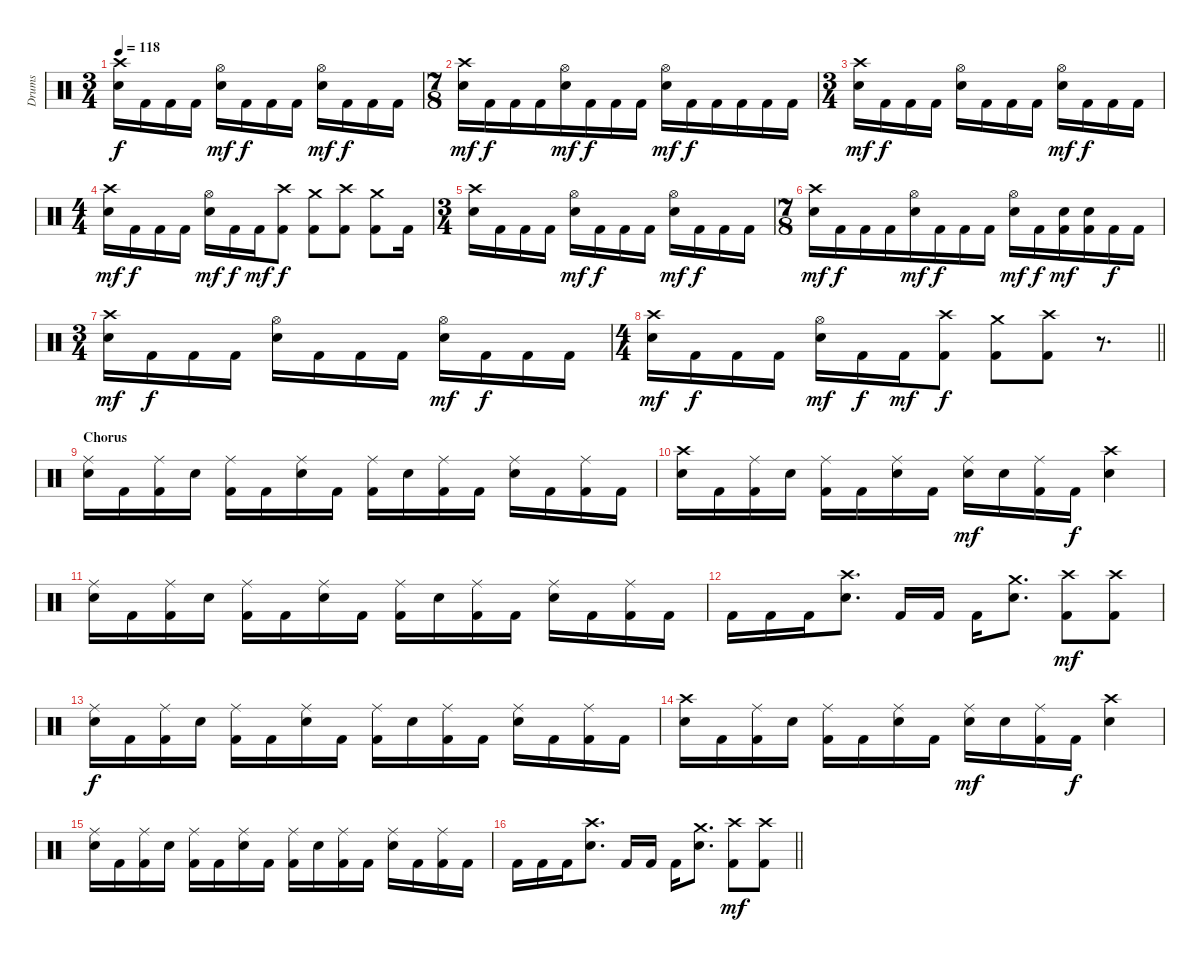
\track ("Drums" "Drums") {instrument percussion}
\staff {score}
\articulation defaults
\ts (3 4)
\tempo 118
\clef neutral
\ks aminor
("Crash high (hit)" "Snare (hit) 2").16{dy f} "Kick (hit) 2".16 "Kick (hit) 2".16 "Kick (hit) 2".16 ("Hi-Hat (open)" "Snare (hit) 2").16{dy mf} "Kick (hit) 2".16{dy f} "Kick (hit) 2".16 "Kick (hit) 2".16 ("Hi-Hat (open)" "Snare (hit) 2").16{dy mf} "Kick (hit) 2".16{dy f} "Kick (hit) 2".16 "Kick (hit) 2".16 |
\ts (7 8)
("Crash high (hit)" "Snare (hit) 2").16{dy mf} "Kick (hit) 2".16{dy f} "Kick (hit) 2".16 "Kick (hit) 2".16 ("Hi-Hat (open)" "Snare (hit) 2").16{dy mf} "Kick (hit) 2".16{dy f} "Kick (hit) 2".16 "Kick (hit) 2".16 ("Hi-Hat (open)" "Snare (hit) 2").16{dy mf} "Kick (hit) 2".16{dy f} "Kick (hit) 2".16 "Kick (hit) 2".16 "Kick (hit) 2".16 "Kick (hit) 2".16 |
\ts (3 4)
("Crash high (hit)" "Snare (hit) 2").16{dy mf} "Kick (hit) 2".16{dy f} "Kick (hit) 2".16 "Kick (hit) 2".16 ("Hi-Hat (open)" "Snare (hit) 2").16 "Kick (hit) 2".16 "Kick (hit) 2".16 "Kick (hit) 2".16 ("Hi-Hat (open)" "Snare (hit) 2").16{dy mf} "Kick (hit) 2".16{dy f} "Kick (hit) 2".16 "Kick (hit) 2".16 |
\ts (4 4)
("Crash high (hit)" "Snare (hit) 2").16{dy mf} "Kick (hit) 2".16{dy f} "Kick (hit) 2".16 "Kick (hit) 2".16 ("Hi-Hat (open)" "Snare (hit) 2").16{dy mf} "Kick (hit) 2".16{dy f} "Kick (hit) 2".16{dy mf} ("Crash high (hit)" "Kick (hit) 2").8{dy f} ("Crash medium (hit)" "Kick (hit) 2").8 ("Crash high (hit)" "Kick (hit) 2").8 ("Crash medium (hit)" "Kick (hit) 2").8 "Kick (hit) 2".16 |
\ts (3 4)
("Crash high (hit)" "Snare (hit) 2").16 "Kick (hit) 2".16 "Kick (hit) 2".16 "Kick (hit) 2".16 ("Hi-Hat (open)" "Snare (hit) 2").16{dy mf} "Kick (hit) 2".16{dy f} "Kick (hit) 2".16 "Kick (hit) 2".16 ("Hi-Hat (open)" "Snare (hit) 2").16{dy mf} "Kick (hit) 2".16{dy f} "Kick (hit) 2".16 "Kick (hit) 2".16 |
\ts (7 8)
("Crash high (hit)" "Snare (hit) 2").16{dy mf} "Kick (hit) 2".16{dy f} "Kick (hit) 2".16 "Kick (hit) 2".16 ("Hi-Hat (open)" "Snare (hit) 2").16{dy mf} "Kick (hit) 2".16{dy f} "Kick (hit) 2".16 "Kick (hit) 2".16 ("Hi-Hat (open)" "Snare (hit) 2").16{dy mf} "Kick (hit) 2".16{dy f} ("Snare (hit) 2" "Kick (hit) 2").16{dy mf} ("Snare (hit) 2" "Kick (hit) 2").16 "Kick (hit) 2".16{dy f} "Kick (hit) 2".16 |
\ts (3 4)
("Crash high (hit)" "Snare (hit) 2").16{dy mf} "Kick (hit) 2".16{dy f} "Kick (hit) 2".16 "Kick (hit) 2".16 ("Hi-Hat (open)" "Snare (hit) 2").16 "Kick (hit) 2".16 "Kick (hit) 2".16 "Kick (hit) 2".16 ("Hi-Hat (open)" "Snare (hit) 2").16{dy mf} "Kick (hit) 2".16{dy f} "Kick (hit) 2".16 "Kick (hit) 2".16 |
\ts (4 4)
\barLineRight lightlight
("Crash high (hit)" "Snare (hit) 2").16{dy mf} "Kick (hit) 2".16{dy f} "Kick (hit) 2".16 "Kick (hit) 2".16 ("Hi-Hat (open)" "Snare (hit) 2").16{dy mf} "Kick (hit) 2".16{dy f} "Kick (hit) 2".16{dy mf} ("Crash high (hit)" "Kick (hit) 2").8{dy f} ("Crash medium (hit)" "Kick (hit) 2").8 ("Crash high (hit)" "Kick (hit) 2").8 r.8{d} |
\section ("" "Chorus")
("Ride (middle)" "Snare (hit) 2").16 "Kick (hit) 2".16 ("Ride (middle)" "Kick (hit) 2").16 "Snare (hit) 2".16 ("Ride (middle)" "Kick (hit) 2").16 "Kick (hit) 2".16 ("Ride (middle)" "Snare (hit) 2").16 "Kick (hit) 2".16 ("Ride (middle)" "Kick (hit) 2").16 "Snare (hit) 2".16 ("Ride (middle)" "Kick (hit) 2").16 "Kick (hit) 2".16 ("Ride (middle)" "Snare (hit) 2").16 "Kick (hit) 2".16 ("Ride (middle)" "Kick (hit) 2").16 "Kick (hit) 2".16 |
("Crash high (hit)" "Snare (hit) 2").16 "Kick (hit) 2".16 ("Ride (middle)" "Kick (hit) 2").16 "Snare (hit) 2".16 ("Ride (middle)" "Kick (hit) 2").16 "Kick (hit) 2".16 ("Ride (middle)" "Snare (hit) 2").16 "Kick (hit) 2".16 ("Ride (middle)" "Snare (hit) 2").16{dy mf} "Snare (hit) 2".16 ("Ride (middle)" "Kick (hit) 2").16 "Kick (hit) 2".16{dy f} ("Crash high (hit)" "Snare (hit) 2").4 |
("Ride (middle)" "Snare (hit) 2").16 "Kick (hit) 2".16 ("Ride (middle)" "Kick (hit) 2").16 "Snare (hit) 2".16 ("Ride (middle)" "Kick (hit) 2").16 "Kick (hit) 2".16 ("Ride (middle)" "Snare (hit) 2").16 "Kick (hit) 2".16 ("Ride (middle)" "Kick (hit) 2").16 "Snare (hit) 2".16 ("Ride (middle)" "Kick (hit) 2").16 "Kick (hit) 2".16 ("Ride (middle)" "Snare (hit) 2").16 "Kick (hit) 2".16 ("Ride (middle)" "Kick (hit) 2").16 "Kick (hit) 2".16 |
"Kick (hit) 2".16 "Kick (hit) 2".16 "Kick (hit) 2".16 ("Crash high (hit)" "Snare (hit) 2").8{d} "Kick (hit) 2".16 "Kick (hit) 2".16 "Kick (hit) 2".16 ("Crash medium (hit)" "Snare (hit) 2").8{d} ("Crash high (hit)" "Kick (hit) 2").8{dy mf} ("Crash high (hit)" "Kick (hit) 2").8 |
("Ride (middle)" "Snare (hit) 2").16{dy f} "Kick (hit) 2".16 ("Ride (middle)" "Kick (hit) 2").16 "Snare (hit) 2".16 ("Ride (middle)" "Kick (hit) 2").16 "Kick (hit) 2".16 ("Ride (middle)" "Snare (hit) 2").16 "Kick (hit) 2".16 ("Ride (middle)" "Kick (hit) 2").16 "Snare (hit) 2".16 ("Ride (middle)" "Kick (hit) 2").16 "Kick (hit) 2".16 ("Ride (middle)" "Snare (hit) 2").16 "Kick (hit) 2".16 ("Ride (middle)" "Kick (hit) 2").16 "Kick (hit) 2".16 |
("Crash high (hit)" "Snare (hit) 2").16 "Kick (hit) 2".16 ("Ride (middle)" "Kick (hit) 2").16 "Snare (hit) 2".16 ("Ride (middle)" "Kick (hit) 2").16 "Kick (hit) 2".16 ("Ride (middle)" "Snare (hit) 2").16 "Kick (hit) 2".16 ("Ride (middle)" "Snare (hit) 2").16{dy mf} "Snare (hit) 2".16 ("Ride (middle)" "Kick (hit) 2").16 "Kick (hit) 2".16{dy f} ("Crash high (hit)" "Snare (hit) 2").4 |
("Ride (middle)" "Snare (hit) 2").16 "Kick (hit) 2".16 ("Ride (middle)" "Kick (hit) 2").16 "Snare (hit) 2".16 ("Ride (middle)" "Kick (hit) 2").16 "Kick (hit) 2".16 ("Ride (middle)" "Snare (hit) 2").16 "Kick (hit) 2".16 ("Ride (middle)" "Kick (hit) 2").16 "Snare (hit) 2".16 ("Ride (middle)" "Kick (hit) 2").16 "Kick (hit) 2".16 ("Ride (middle)" "Snare (hit) 2").16 "Kick (hit) 2".16 ("Ride (middle)" "Kick (hit) 2").16 "Kick (hit) 2".16 |
\barLineRight lightlight "Kick (hit) 2".16 "Kick (hit) 2".16 "Kick (hit) 2".16
("Crash high (hit)" "Snare (hit) 2").8{d} "Kick (hit) 2".16 "Kick (hit) 2".16 "Kick (hit) 2".16 ("Crash medium (hit)" "Snare (hit) 2").8{d} ("Crash high (hit)" "Kick (hit) 2").8{dy mf} ("Crash high (hit)" "Kick (hit) 2").8
